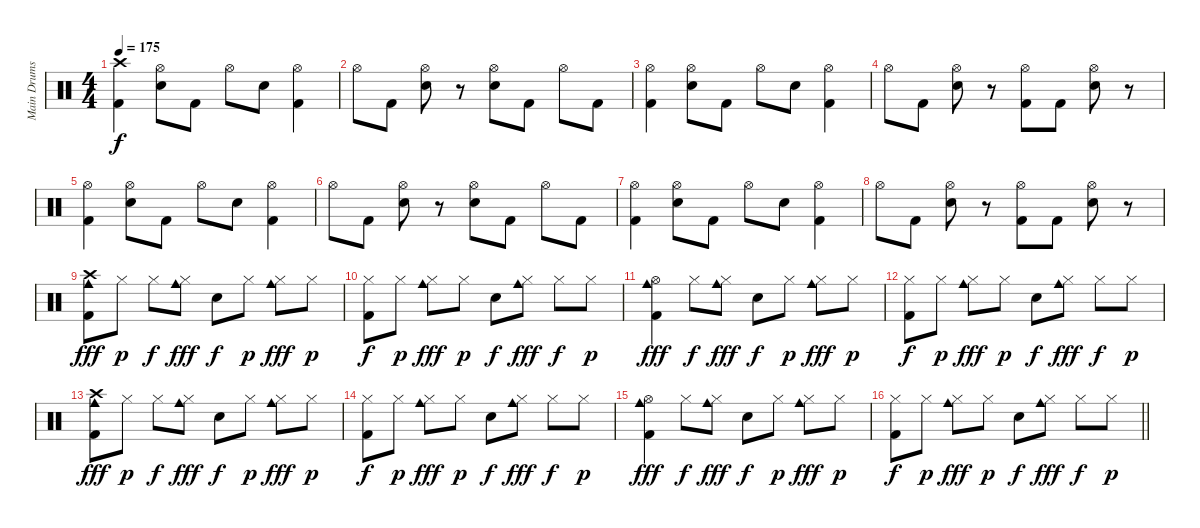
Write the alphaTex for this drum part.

\track ("Main Drums" "Main Drums") {instrument percussion}
\staff {score}
\articulation defaults
\ts (4 4)
\tempo 175
\clef neutral
\ks c
("Crash high (hit)" "Kick (hit) 2").4{dy f} ("Hi-Hat (open)" "Electric Snare (hit)").8 "Kick (hit) 2".8 "Hi-Hat (open)".8 "Electric Snare (hit)".8 ("Hi-Hat (open)" "Kick (hit) 2").4 |
"Hi-Hat (open)".8 "Kick (hit) 2".8 ("Hi-Hat (open)" "Electric Snare (hit)").8 r.8 ("Hi-Hat (open)" "Electric Snare (hit)").8 "Kick (hit) 2".8 "Hi-Hat (open)".8 "Kick (hit) 2".8 |
("Hi-Hat (open)" "Kick (hit) 2").4 ("Hi-Hat (open)" "Electric Snare (hit)").8 "Kick (hit) 2".8 "Hi-Hat (open)".8 "Electric Snare (hit)".8 ("Hi-Hat (open)" "Kick (hit) 2").4 |
"Hi-Hat (open)".8 "Kick (hit) 2".8 ("Hi-Hat (open)" "Electric Snare (hit)").8 r.8 ("Hi-Hat (open)" "Kick (hit) 2").8 "Kick (hit) 2".8 ("Hi-Hat (open)" "Electric Snare (hit)").8 r.8 |
("Hi-Hat (open)" "Kick (hit) 2").4 ("Hi-Hat (open)" "Electric Snare (hit)").8 "Kick (hit) 2".8 "Hi-Hat (open)".8 "Electric Snare (hit)".8 ("Hi-Hat (open)" "Kick (hit) 2").4 |
"Hi-Hat (open)".8 "Kick (hit) 2".8 ("Hi-Hat (open)" "Electric Snare (hit)").8 r.8 ("Hi-Hat (open)" "Electric Snare (hit)").8 "Kick (hit) 2".8 "Hi-Hat (open)".8 "Kick (hit) 2".8 |
("Hi-Hat (open)" "Kick (hit) 2").4 ("Hi-Hat (open)" "Electric Snare (hit)").8 "Kick (hit) 2".8 "Hi-Hat (open)".8 "Electric Snare (hit)".8 ("Hi-Hat (open)" "Kick (hit) 2").4 |
"Hi-Hat (open)".8 "Kick (hit) 2".8 ("Hi-Hat (open)" "Electric Snare (hit)").8 r.8 ("Hi-Hat (open)" "Kick (hit) 2").8 "Kick (hit) 2".8 ("Hi-Hat (open)" "Electric Snare (hit)").8 r.8 |
("Crash high (hit)" "Cowbell medium (hit)" "Kick (hit) 2").8{dy fff} "Hi-Hat (closed)".8{dy p} "Hi-Hat (closed)".8{dy f} ("Hi-Hat (closed)" "Cowbell medium (hit)").8{dy fff} "Electric Snare (hit)".8{dy f} "Hi-Hat (closed)".8{dy p} ("Hi-Hat (closed)" "Cowbell medium (hit)").8{dy fff} "Hi-Hat (closed)".8{dy p} |
("Hi-Hat (closed)" "Kick (hit) 2").8{dy f} "Hi-Hat (closed)".8{dy p} ("Hi-Hat (closed)" "Cowbell medium (hit)").8{dy fff} "Hi-Hat (closed)".8{dy p} "Electric Snare (hit)".8{dy f} ("Hi-Hat (closed)" "Cowbell medium (hit)").8{dy fff} "Hi-Hat (closed)".8{dy f} "Hi-Hat (closed)".8{dy p} |
("Hi-Hat (open)" "Cowbell medium (hit)" "Kick (hit) 2").4{dy fff} "Hi-Hat (closed)".8{dy f} ("Hi-Hat (closed)" "Cowbell medium (hit)").8{dy fff} "Electric Snare (hit)".8{dy f} "Hi-Hat (closed)".8{dy p} ("Hi-Hat (closed)" "Cowbell medium (hit)").8{dy fff} "Hi-Hat (closed)".8{dy p} |
("Hi-Hat (closed)" "Kick (hit) 2").8{dy f} "Hi-Hat (closed)".8{dy p} ("Hi-Hat (closed)" "Cowbell medium (hit)").8{dy fff} "Hi-Hat (closed)".8{dy p} "Electric Snare (hit)".8{dy f} ("Hi-Hat (closed)" "Cowbell medium (hit)").8{dy fff} "Hi-Hat (closed)".8{dy f} "Hi-Hat (closed)".8{dy p} |
("Crash high (hit)" "Cowbell medium (hit)" "Kick (hit) 2").8{dy fff} "Hi-Hat (closed)".8{dy p} "Hi-Hat (closed)".8{dy f} ("Hi-Hat (closed)" "Cowbell medium (hit)").8{dy fff} "Electric Snare (hit)".8{dy f} "Hi-Hat (closed)".8{dy p} ("Hi-Hat (closed)" "Cowbell medium (hit)").8{dy fff} "Hi-Hat (closed)".8{dy p} |
("Hi-Hat (closed)" "Kick (hit) 2").8{dy f} "Hi-Hat (closed)".8{dy p} ("Hi-Hat (closed)" "Cowbell medium (hit)").8{dy fff} "Hi-Hat (closed)".8{dy p} "Electric Snare (hit)".8{dy f} ("Hi-Hat (closed)" "Cowbell medium (hit)").8{dy fff} "Hi-Hat (closed)".8{dy f} "Hi-Hat (closed)".8{dy p} |
("Hi-Hat (open)" "Cowbell medium (hit)" "Kick (hit) 2").4{dy fff} "Hi-Hat (closed)".8{dy f} ("Hi-Hat (closed)" "Cowbell medium (hit)").8{dy fff} "Electric Snare (hit)".8{dy f} "Hi-Hat (closed)".8{dy p} ("Hi-Hat (closed)" "Cowbell medium (hit)").8{dy fff} "Hi-Hat (closed)".8{dy p} |
\barLineRight lightlight
("Hi-Hat (closed)" "Kick (hit) 2").8{dy f} "Hi-Hat (closed)".8{dy p} ("Hi-Hat (closed)" "Cowbell medium (hit)").8{dy fff} "Hi-Hat (closed)".8{dy p} "Electric Snare (hit)".8{dy f} ("Hi-Hat (closed)" "Cowbell medium (hit)").8{dy fff} "Hi-Hat (closed)".8{dy f} "Hi-Hat (closed)".8{dy p}
